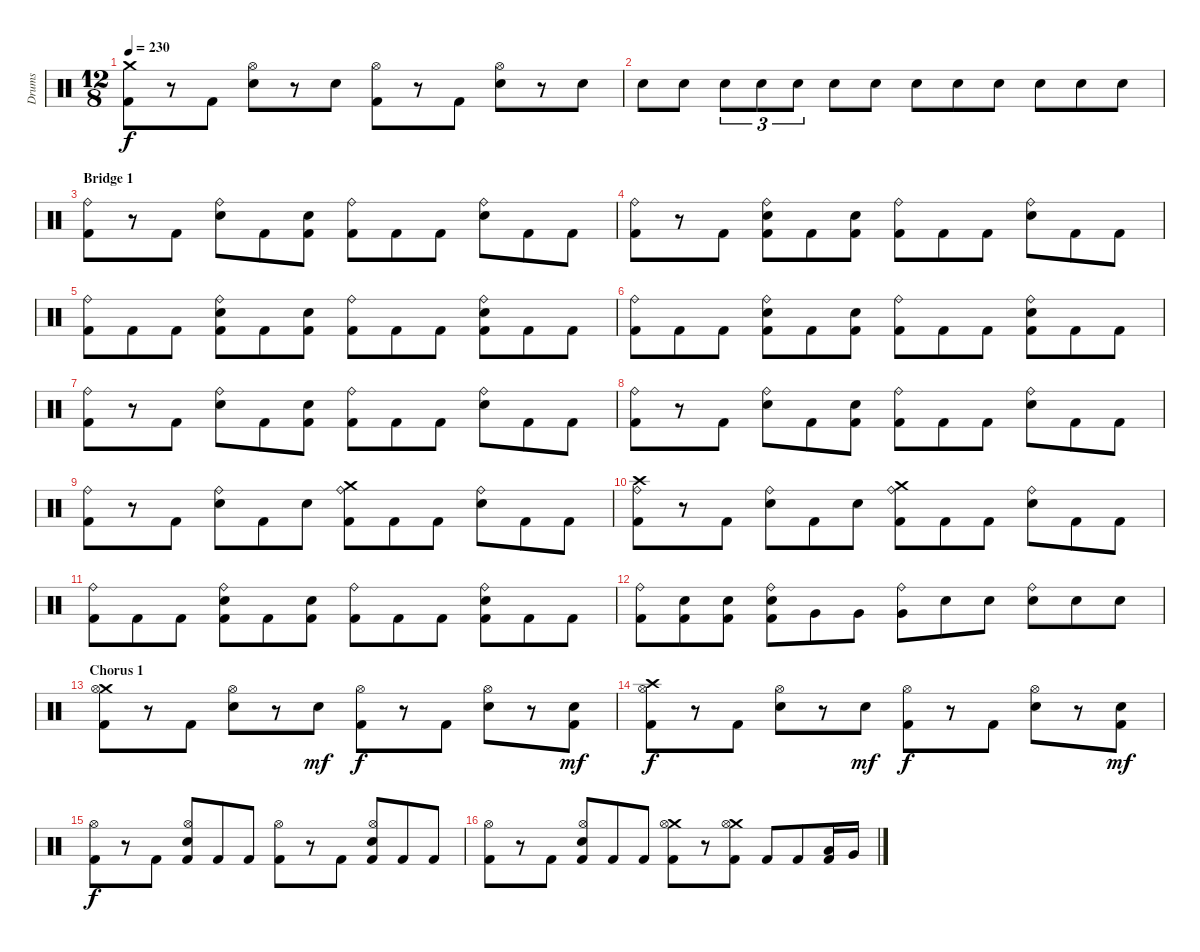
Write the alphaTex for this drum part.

\track ("Drums" "Drums") {instrument percussion}
\staff {score}
\articulation defaults
\ts (12 8)
\tempo 230
\clef neutral
\ks c
("Crash medium (hit)" "Kick (hit) 2").8{dy f} r.8 "Kick (hit) 2".8 ("Hi-Hat (open)" "Snare (hit) 2").8 r.8 "Snare (hit) 2".8 ("Hi-Hat (open)" "Kick (hit) 2").8 r.8 "Kick (hit) 2".8 ("Hi-Hat (open)" "Snare (hit) 2").8 r.8 "Snare (hit) 2".8 |
"Snare (hit) 2".8 "Snare (hit) 2".8 "Snare (hit) 2".8{tu (3 2)} "Snare (hit) 2".8{tu (3 2)} "Snare (hit) 2".8{tu (3 2)} "Snare (hit) 2".8 "Snare (hit) 2".8 "Snare (hit) 2".8 "Snare (hit) 2".8 "Snare (hit) 2".8 "Snare (hit) 2".8 "Snare (hit) 2".8 "Snare (hit) 2".8 |
\section ("" "Bridge 1")
("Ride (bell)" "Kick (hit) 2").8 r.8 "Kick (hit) 2".8 ("Ride (bell)" "Snare (hit) 2").8 "Kick (hit) 2".8 ("Snare (hit) 2" "Kick (hit) 2").8 ("Ride (bell)" "Kick (hit) 2").8 "Kick (hit) 2".8 "Kick (hit) 2".8 ("Ride (bell)" "Snare (hit) 2").8 "Kick (hit) 2".8 "Kick (hit) 2".8 |
("Ride (bell)" "Kick (hit) 2").8 r.8 "Kick (hit) 2".8 ("Ride (bell)" "Snare (hit) 2" "Kick (hit) 2").8 "Kick (hit) 2".8 ("Snare (hit) 2" "Kick (hit) 2").8 ("Ride (bell)" "Kick (hit) 2").8 "Kick (hit) 2".8 "Kick (hit) 2".8 ("Ride (bell)" "Snare (hit) 2").8 "Kick (hit) 2".8 "Kick (hit) 2".8 |
("Ride (bell)" "Kick (hit) 2").8 "Kick (hit) 2".8 "Kick (hit) 2".8 ("Ride (bell)" "Snare (hit) 2" "Kick (hit) 2").8 "Kick (hit) 2".8 ("Snare (hit) 2" "Kick (hit) 2").8 ("Ride (bell)" "Kick (hit) 2").8 "Kick (hit) 2".8 "Kick (hit) 2".8 ("Ride (bell)" "Snare (hit) 2" "Kick (hit) 2").8 "Kick (hit) 2".8 "Kick (hit) 2".8 |
("Ride (bell)" "Kick (hit) 2").8 "Kick (hit) 2".8 "Kick (hit) 2".8 ("Ride (bell)" "Snare (hit) 2" "Kick (hit) 2").8 "Kick (hit) 2".8 ("Snare (hit) 2" "Kick (hit) 2").8 ("Ride (bell)" "Kick (hit) 2").8 "Kick (hit) 2".8 "Kick (hit) 2".8 ("Ride (bell)" "Snare (hit) 2" "Kick (hit) 2").8 "Kick (hit) 2".8 "Kick (hit) 2".8 |
("Ride (bell)" "Kick (hit) 2").8 r.8 "Kick (hit) 2".8 ("Ride (bell)" "Snare (hit) 2").8 "Kick (hit) 2".8 ("Snare (hit) 2" "Kick (hit) 2").8 ("Ride (bell)" "Kick (hit) 2").8 "Kick (hit) 2".8 "Kick (hit) 2".8 ("Ride (bell)" "Snare (hit) 2").8 "Kick (hit) 2".8 "Kick (hit) 2".8 |
("Ride (bell)" "Kick (hit) 2").8 r.8 "Kick (hit) 2".8 ("Ride (bell)" "Snare (hit) 2").8 "Kick (hit) 2".8 ("Snare (hit) 2" "Kick (hit) 2").8 ("Ride (bell)" "Kick (hit) 2").8 "Kick (hit) 2".8 "Kick (hit) 2".8 ("Ride (bell)" "Snare (hit) 2").8 "Kick (hit) 2".8 "Kick (hit) 2".8 |
("Ride (bell)" "Kick (hit) 2").8 r.8 "Kick (hit) 2".8 ("Ride (bell)" "Snare (hit) 2").8 "Kick (hit) 2".8 "Snare (hit) 2".8 ("Crash medium (hit)" "Ride (bell)" "Kick (hit) 2").8 "Kick (hit) 2".8 "Kick (hit) 2".8 ("Ride (bell)" "Snare (hit) 2").8 "Kick (hit) 2".8 "Kick (hit) 2".8 |
("Crash high (hit)" "Ride (bell)" "Kick (hit) 2").8 r.8 "Kick (hit) 2".8 ("Ride (bell)" "Snare (hit) 2").8 "Kick (hit) 2".8 "Snare (hit) 2".8 ("Crash medium (hit)" "Ride (bell)" "Kick (hit) 2").8 "Kick (hit) 2".8 "Kick (hit) 2".8 ("Ride (bell)" "Snare (hit) 2").8 "Kick (hit) 2".8 "Kick (hit) 2".8 |
("Ride (bell)" "Kick (hit) 2").8 "Kick (hit) 2".8 "Kick (hit) 2".8 ("Ride (bell)" "Snare (hit) 2" "Kick (hit) 2").8 "Kick (hit) 2".8 ("Snare (hit) 2" "Kick (hit) 2").8 ("Ride (bell)" "Kick (hit) 2").8 "Kick (hit) 2".8 "Kick (hit) 2".8 ("Ride (bell)" "Snare (hit) 2" "Kick (hit) 2").8 "Kick (hit) 2".8 "Kick (hit) 2".8 |
("Ride (bell)" "Kick (hit) 2").8 ("Snare (hit) 2" "Kick (hit) 2").8 ("Snare (hit) 2" "Kick (hit) 2").8 ("Ride (bell)" "Snare (hit) 2" "Kick (hit) 2").8 "Very Low Tom (hit)".8 "Very Low Tom (hit)".8 ("Ride (bell)" "Very Low Tom (hit)").8 "Snare (hit) 2".8 "Snare (hit) 2".8 ("Ride (bell)" "Snare (hit) 2").8 "Snare (hit) 2".8 "Snare (hit) 2".8 |
\section ("" "Chorus 1")
("Crash medium (hit)" "Hi-Hat (open)" "Kick (hit) 2").8 r.8 "Kick (hit) 2".8 ("Hi-Hat (open)" "Snare (hit) 2").8 r.8 "Snare (hit) 2".8{dy mf} ("Hi-Hat (open)" "Kick (hit) 2").8{dy f} r.8 "Kick (hit) 2".8 ("Hi-Hat (open)" "Snare (hit) 2").8 r.8 ("Snare (hit) 2" "Kick (hit) 2").8{dy mf} |
("Crash high (hit)" "Hi-Hat (open)" "Kick (hit) 2").8{dy f} r.8 "Kick (hit) 2".8 ("Hi-Hat (open)" "Snare (hit) 2").8 r.8 "Snare (hit) 2".8{dy mf} ("Hi-Hat (open)" "Kick (hit) 2").8{dy f} r.8 "Kick (hit) 2".8 ("Hi-Hat (open)" "Snare (hit) 2").8 r.8 ("Snare (hit) 2" "Kick (hit) 2").8{dy mf} |
("Hi-Hat (open)" "Kick (hit) 2").8{dy f} r.8 "Kick (hit) 2".8 ("Hi-Hat (open)" "Snare (hit) 2" "Kick (hit) 2").8 "Kick (hit) 2".8 "Kick (hit) 2".8 ("Hi-Hat (open)" "Kick (hit) 2").8 r.8 "Kick (hit) 2".8 ("Hi-Hat (open)" "Snare (hit) 2" "Kick (hit) 2").8 "Kick (hit) 2".8 "Kick (hit) 2".8 |
("Hi-Hat (open)" "Kick (hit) 2").8 r.8 "Kick (hit) 2".8 ("Hi-Hat (open)" "Snare (hit) 2" "Kick (hit) 2").8 "Kick (hit) 2".8 "Kick (hit) 2".8 ("Crash medium (hit)" "Hi-Hat (open)" "Kick (hit) 2").8 r.8 ("Crash medium (hit)" "Hi-Hat (open)" "Kick (hit) 2").8 "Kick (hit) 2".8 "Kick (hit) 2".8 ("Low Tom (hit)" "Kick (hit) 2").16 "Very Low Tom (hit)".16
